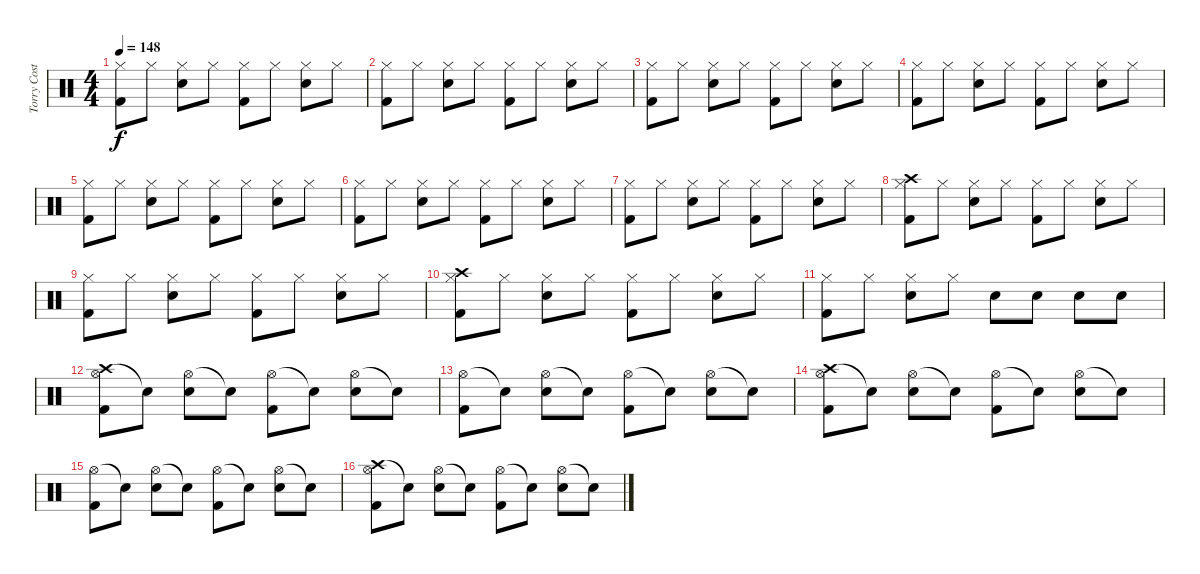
\track ("Torry Costellano" "Torry Cost") {instrument percussion bank 127}
\staff {score}
\articulation defaults
\ts (4 4)
\tempo 148
\clef neutral
\ks c
("Hi-Hat (closed)" "Kick (hit) 2").8{dy f} "Hi-Hat (closed)".8 ("Hi-Hat (closed)" "Electric Snare (hit)").8 "Hi-Hat (closed)".8 ("Hi-Hat (closed)" "Kick (hit) 2").8 "Hi-Hat (closed)".8 ("Hi-Hat (closed)" "Electric Snare (hit)").8 "Hi-Hat (closed)".8 |
("Hi-Hat (closed)" "Kick (hit) 2").8 "Hi-Hat (closed)".8 ("Hi-Hat (closed)" "Electric Snare (hit)").8 "Hi-Hat (closed)".8 ("Hi-Hat (closed)" "Kick (hit) 2").8 "Hi-Hat (closed)".8 ("Hi-Hat (closed)" "Electric Snare (hit)").8 "Hi-Hat (closed)".8 |
("Hi-Hat (closed)" "Kick (hit) 2").8 "Hi-Hat (closed)".8 ("Hi-Hat (closed)" "Electric Snare (hit)").8 "Hi-Hat (closed)".8 ("Hi-Hat (closed)" "Kick (hit) 2").8 "Hi-Hat (closed)".8 ("Hi-Hat (closed)" "Electric Snare (hit)").8 "Hi-Hat (closed)".8 |
("Hi-Hat (closed)" "Kick (hit) 2").8 "Hi-Hat (closed)".8 ("Hi-Hat (closed)" "Electric Snare (hit)").8 "Hi-Hat (closed)".8 ("Hi-Hat (closed)" "Kick (hit) 2").8 "Hi-Hat (closed)".8 ("Hi-Hat (closed)" "Electric Snare (hit)").8 "Hi-Hat (closed)".8 |
("Hi-Hat (closed)" "Kick (hit) 2").8 "Hi-Hat (closed)".8 ("Hi-Hat (closed)" "Electric Snare (hit)").8 "Hi-Hat (closed)".8 ("Hi-Hat (closed)" "Kick (hit) 2").8 "Hi-Hat (closed)".8 ("Hi-Hat (closed)" "Electric Snare (hit)").8 "Hi-Hat (closed)".8 |
("Hi-Hat (closed)" "Kick (hit) 2").8 "Hi-Hat (closed)".8 ("Hi-Hat (closed)" "Electric Snare (hit)").8 "Hi-Hat (closed)".8 ("Hi-Hat (closed)" "Kick (hit) 2").8 "Hi-Hat (closed)".8 ("Hi-Hat (closed)" "Electric Snare (hit)").8 "Hi-Hat (closed)".8 |
("Hi-Hat (closed)" "Kick (hit) 2").8 "Hi-Hat (closed)".8 ("Hi-Hat (closed)" "Electric Snare (hit)").8 "Hi-Hat (closed)".8 ("Hi-Hat (closed)" "Kick (hit) 2").8 "Hi-Hat (closed)".8 ("Hi-Hat (closed)" "Electric Snare (hit)").8 "Hi-Hat (closed)".8 |
("Crash high (hit)" "Hi-Hat (closed)" "Kick (hit) 2").8 "Hi-Hat (closed)".8 ("Hi-Hat (closed)" "Electric Snare (hit)").8 "Hi-Hat (closed)".8 ("Hi-Hat (closed)" "Kick (hit) 2").8 "Hi-Hat (closed)".8 ("Hi-Hat (closed)" "Electric Snare (hit)").8 "Hi-Hat (closed)".8 |
("Hi-Hat (closed)" "Kick (hit) 2").8 "Hi-Hat (closed)".8 ("Hi-Hat (closed)" "Electric Snare (hit)").8 "Hi-Hat (closed)".8 ("Hi-Hat (closed)" "Kick (hit) 2").8 "Hi-Hat (closed)".8 ("Hi-Hat (closed)" "Electric Snare (hit)").8 "Hi-Hat (closed)".8 |
("Crash high (hit)" "Hi-Hat (closed)" "Kick (hit) 2").8 "Hi-Hat (closed)".8 ("Hi-Hat (closed)" "Electric Snare (hit)").8 "Hi-Hat (closed)".8 ("Hi-Hat (closed)" "Kick (hit) 2").8 "Hi-Hat (closed)".8 ("Hi-Hat (closed)" "Electric Snare (hit)").8 "Hi-Hat (closed)".8 |
("Hi-Hat (closed)" "Kick (hit) 2").8 "Hi-Hat (closed)".8 ("Hi-Hat (closed)" "Electric Snare (hit)").8 "Hi-Hat (closed)".8 "Electric Snare (hit)".8 "Electric Snare (hit)".8 "Electric Snare (hit)".8 "Electric Snare (hit)".8 |
("Crash high (hit)" "Hi-Hat (open)" "Kick (hit) 2").8 "Snare (hit)"{t}.8 ("Hi-Hat (open)" "Electric Snare (hit)").8 "Snare (hit)"{t}.8 ("Hi-Hat (open)" "Kick (hit) 2").8 "Snare (hit)"{t}.8 ("Hi-Hat (open)" "Electric Snare (hit)").8 "Snare (hit)"{t}.8 |
("Hi-Hat (open)" "Kick (hit) 2").8 "Snare (hit)"{t}.8 ("Hi-Hat (open)" "Electric Snare (hit)").8 "Snare (hit)"{t}.8 ("Hi-Hat (open)" "Kick (hit) 2").8 "Snare (hit)"{t}.8 ("Hi-Hat (open)" "Electric Snare (hit)").8 "Snare (hit)"{t}.8 |
("Crash high (hit)" "Hi-Hat (open)" "Kick (hit) 2").8 "Snare (hit)"{t}.8 ("Hi-Hat (open)" "Electric Snare (hit)").8 "Snare (hit)"{t}.8 ("Hi-Hat (open)" "Kick (hit) 2").8 "Snare (hit)"{t}.8 ("Hi-Hat (open)" "Electric Snare (hit)").8 "Snare (hit)"{t}.8 |
("Hi-Hat (open)" "Kick (hit) 2").8 "Snare (hit)"{t}.8 ("Hi-Hat (open)" "Electric Snare (hit)").8 "Snare (hit)"{t}.8 ("Hi-Hat (open)" "Kick (hit) 2").8 "Snare (hit)"{t}.8 ("Hi-Hat (open)" "Electric Snare (hit)").8 "Snare (hit)"{t}.8 |
("Crash high (hit)" "Hi-Hat (open)" "Kick (hit) 2").8 "Snare (hit)"{t}.8 ("Hi-Hat (open)" "Electric Snare (hit)").8 "Snare (hit)"{t}.8 ("Hi-Hat (open)" "Kick (hit) 2").8 "Snare (hit)"{t}.8 ("Hi-Hat (open)" "Electric Snare (hit)").8 "Snare (hit)"{t}.8
